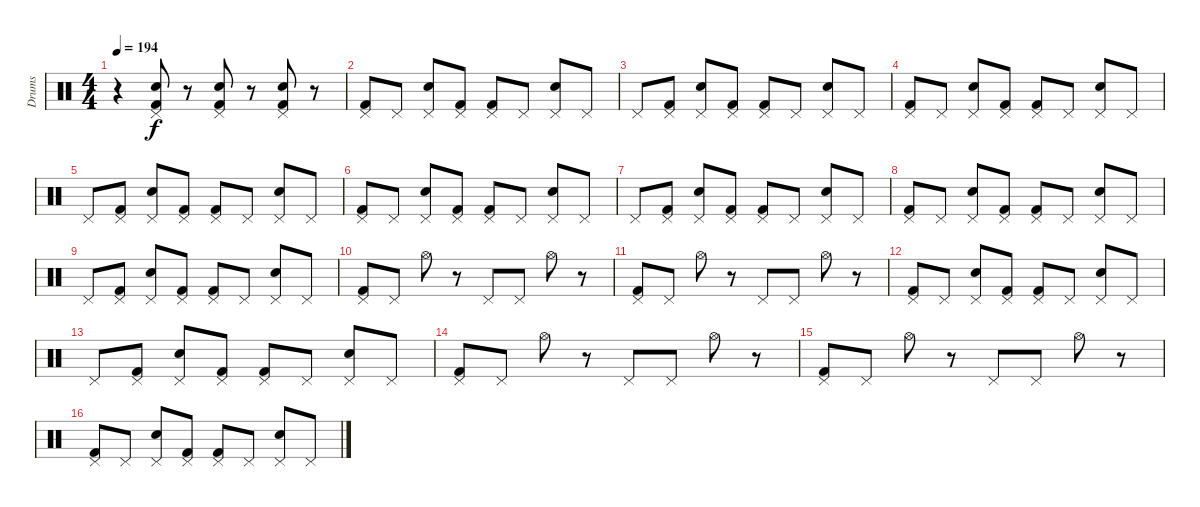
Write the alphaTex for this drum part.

\track ("Drums" "Drums") {instrument percussion}
\staff {score}
\articulation defaults
\ts (4 4)
\tempo 194
\clef neutral
\ks c
r.4{dy f} ("Pedal Hi-Hat (hit)" "Kick (hit) 2" "Electric Snare (hit)").8 r.8 ("Pedal Hi-Hat (hit)" "Kick (hit) 2" "Electric Snare (hit)").8 r.8 ("Pedal Hi-Hat (hit)" "Kick (hit) 2" "Electric Snare (hit)").8 r.8 |
("Pedal Hi-Hat (hit)" "Kick (hit) 2").8 "Pedal Hi-Hat (hit)".8 ("Pedal Hi-Hat (hit)" "Electric Snare (hit)").8 ("Pedal Hi-Hat (hit)" "Kick (hit) 2").8 ("Pedal Hi-Hat (hit)" "Kick (hit) 2").8 "Pedal Hi-Hat (hit)".8 ("Pedal Hi-Hat (hit)" "Electric Snare (hit)").8 "Pedal Hi-Hat (hit)".8 |
"Pedal Hi-Hat (hit)".8 ("Pedal Hi-Hat (hit)" "Kick (hit) 2").8 ("Electric Snare (hit)" "Pedal Hi-Hat (hit)").8 ("Pedal Hi-Hat (hit)" "Kick (hit) 2").8 ("Kick (hit) 2" "Pedal Hi-Hat (hit)").8 "Pedal Hi-Hat (hit)".8 ("Pedal Hi-Hat (hit)" "Electric Snare (hit)").8 "Pedal Hi-Hat (hit)".8 |
("Kick (hit) 2" "Pedal Hi-Hat (hit)").8 "Pedal Hi-Hat (hit)".8 ("Pedal Hi-Hat (hit)" "Electric Snare (hit)").8 ("Kick (hit) 2" "Pedal Hi-Hat (hit)").8 ("Kick (hit) 2" "Pedal Hi-Hat (hit)").8 "Pedal Hi-Hat (hit)".8 ("Electric Snare (hit)" "Pedal Hi-Hat (hit)").8 "Pedal Hi-Hat (hit)".8 |
"Pedal Hi-Hat (hit)".8 ("Kick (hit) 2" "Pedal Hi-Hat (hit)").8 ("Electric Snare (hit)" "Pedal Hi-Hat (hit)").8 ("Kick (hit) 2" "Pedal Hi-Hat (hit)").8 ("Kick (hit) 2" "Pedal Hi-Hat (hit)").8 "Pedal Hi-Hat (hit)".8 ("Electric Snare (hit)" "Pedal Hi-Hat (hit)").8 "Pedal Hi-Hat (hit)".8 |
("Pedal Hi-Hat (hit)" "Kick (hit) 2").8 "Pedal Hi-Hat (hit)".8 ("Pedal Hi-Hat (hit)" "Electric Snare (hit)").8 ("Pedal Hi-Hat (hit)" "Kick (hit) 2").8 ("Pedal Hi-Hat (hit)" "Kick (hit) 2").8 "Pedal Hi-Hat (hit)".8 ("Pedal Hi-Hat (hit)" "Electric Snare (hit)").8 "Pedal Hi-Hat (hit)".8 |
"Pedal Hi-Hat (hit)".8 ("Pedal Hi-Hat (hit)" "Kick (hit) 2").8 ("Electric Snare (hit)" "Pedal Hi-Hat (hit)").8 ("Pedal Hi-Hat (hit)" "Kick (hit) 2").8 ("Kick (hit) 2" "Pedal Hi-Hat (hit)").8 "Pedal Hi-Hat (hit)".8 ("Pedal Hi-Hat (hit)" "Electric Snare (hit)").8 "Pedal Hi-Hat (hit)".8 |
("Kick (hit) 2" "Pedal Hi-Hat (hit)").8 "Pedal Hi-Hat (hit)".8 ("Pedal Hi-Hat (hit)" "Electric Snare (hit)").8 ("Kick (hit) 2" "Pedal Hi-Hat (hit)").8 ("Kick (hit) 2" "Pedal Hi-Hat (hit)").8 "Pedal Hi-Hat (hit)".8 ("Electric Snare (hit)" "Pedal Hi-Hat (hit)").8 "Pedal Hi-Hat (hit)".8 |
"Pedal Hi-Hat (hit)".8 ("Kick (hit) 2" "Pedal Hi-Hat (hit)").8 ("Electric Snare (hit)" "Pedal Hi-Hat (hit)").8 ("Kick (hit) 2" "Pedal Hi-Hat (hit)").8 ("Kick (hit) 2" "Pedal Hi-Hat (hit)").8 "Pedal Hi-Hat (hit)".8 ("Electric Snare (hit)" "Pedal Hi-Hat (hit)").8 "Pedal Hi-Hat (hit)".8 |
("Pedal Hi-Hat (hit)" "Kick (hit) 2").8 "Pedal Hi-Hat (hit)".8 "Hi-Hat (open)".8 r.8 "Pedal Hi-Hat (hit)".8 "Pedal Hi-Hat (hit)".8 "Hi-Hat (open)".8 r.8 |
("Pedal Hi-Hat (hit)" "Kick (hit) 2").8 "Pedal Hi-Hat (hit)".8 "Hi-Hat (open)".8 r.8 "Pedal Hi-Hat (hit)".8 "Pedal Hi-Hat (hit)".8 "Hi-Hat (open)".8 r.8 |
("Kick (hit) 2" "Pedal Hi-Hat (hit)").8 "Pedal Hi-Hat (hit)".8 ("Pedal Hi-Hat (hit)" "Electric Snare (hit)").8 ("Kick (hit) 2" "Pedal Hi-Hat (hit)").8 ("Kick (hit) 2" "Pedal Hi-Hat (hit)").8 "Pedal Hi-Hat (hit)".8 ("Electric Snare (hit)" "Pedal Hi-Hat (hit)").8 "Pedal Hi-Hat (hit)".8 |
"Pedal Hi-Hat (hit)".8 ("Kick (hit) 2" "Pedal Hi-Hat (hit)").8 ("Electric Snare (hit)" "Pedal Hi-Hat (hit)").8 ("Kick (hit) 2" "Pedal Hi-Hat (hit)").8 ("Kick (hit) 2" "Pedal Hi-Hat (hit)").8 "Pedal Hi-Hat (hit)".8 ("Electric Snare (hit)" "Pedal Hi-Hat (hit)").8 "Pedal Hi-Hat (hit)".8 |
("Pedal Hi-Hat (hit)" "Kick (hit) 2").8 "Pedal Hi-Hat (hit)".8 "Hi-Hat (open)".8 r.8 "Pedal Hi-Hat (hit)".8 "Pedal Hi-Hat (hit)".8 "Hi-Hat (open)".8 r.8 |
("Kick (hit) 2" "Pedal Hi-Hat (hit)").8 "Pedal Hi-Hat (hit)".8 "Hi-Hat (open)".8 r.8 "Pedal Hi-Hat (hit)".8 "Pedal Hi-Hat (hit)".8 "Hi-Hat (open)".8 r.8 |
("Pedal Hi-Hat (hit)" "Kick (hit) 2").8 "Pedal Hi-Hat (hit)".8 ("Electric Snare (hit)" "Pedal Hi-Hat (hit)").8 ("Kick (hit) 2" "Pedal Hi-Hat (hit)").8 ("Kick (hit) 2" "Pedal Hi-Hat (hit)").8 "Pedal Hi-Hat (hit)".8 ("Electric Snare (hit)" "Pedal Hi-Hat (hit)").8 "Pedal Hi-Hat (hit)".8
